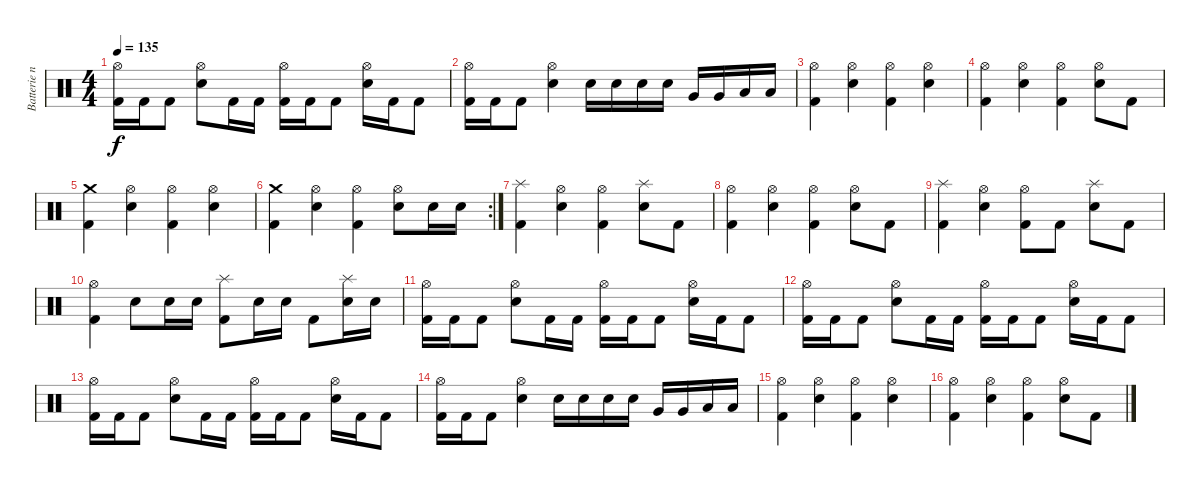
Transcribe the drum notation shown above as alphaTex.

\track ("Batterie n°3" "Batterie n") {instrument percussion}
\staff {score}
\articulation defaults
\ts (4 4)
\tempo 135
\clef neutral
\ks c
("Hi-Hat (open)" "Kick (hit) 2").16{dy f} "Kick (hit) 2".16 "Kick (hit) 2".8 ("Hi-Hat (open)" "Snare (hit) 2").8 "Kick (hit) 2".16 "Kick (hit) 2".16 ("Hi-Hat (open)" "Kick (hit) 2").16 "Kick (hit) 2".16 "Kick (hit) 2".8 ("Hi-Hat (open)" "Snare (hit) 2").16 "Kick (hit) 2".16 "Kick (hit) 2".8 |
("Hi-Hat (open)" "Kick (hit) 2").16 "Kick (hit) 2".16 "Kick (hit) 2".8 ("Hi-Hat (open)" "Snare (hit) 2").4 "Snare (hit) 2".16 "Snare (hit) 2".16 "Snare (hit) 2".16 "Snare (hit) 2".16 "Very Low Tom (hit)".16 "Very Low Tom (hit)".16 "Low Tom (hit)".16 "Low Tom (hit)".16 |
("Hi-Hat (open)" "Kick (hit) 2").4 ("Hi-Hat (open)" "Snare (hit) 2").4 ("Hi-Hat (open)" "Kick (hit) 2").4 ("Hi-Hat (open)" "Snare (hit) 2").4 |
("Hi-Hat (open)" "Kick (hit) 2").4 ("Hi-Hat (open)" "Snare (hit) 2").4 ("Hi-Hat (open)" "Kick (hit) 2").4 ("Hi-Hat (open)" "Snare (hit) 2").8 "Kick (hit) 2".8 |
("Crash medium (hit)" "Kick (hit) 2").4 ("Hi-Hat (open)" "Snare (hit) 2").4 ("Hi-Hat (open)" "Kick (hit) 2").4 ("Hi-Hat (open)" "Snare (hit) 2").4 |
\rc 2
("Crash medium (hit)" "Kick (hit) 2").4 ("Hi-Hat (open)" "Snare (hit) 2").4 ("Hi-Hat (open)" "Kick (hit) 2").4 ("Hi-Hat (open)" "Snare (hit) 2").8 "Snare (hit) 2".16 "Snare (hit) 2".16 |
("Splash (hit)" "Kick (hit) 2").4 ("Hi-Hat (open)" "Snare (hit) 2").4 ("Hi-Hat (open)" "Kick (hit) 2").4 ("Splash (hit)" "Snare (hit) 2").8 "Kick (hit) 2".8 |
("Hi-Hat (open)" "Kick (hit) 2").4 ("Hi-Hat (open)" "Snare (hit) 2").4 ("Hi-Hat (open)" "Kick (hit) 2").4 ("Hi-Hat (open)" "Snare (hit) 2").8 "Kick (hit) 2".8 |
("Splash (hit)" "Kick (hit) 2").4 ("Hi-Hat (open)" "Snare (hit) 2").4 ("Hi-Hat (open)" "Kick (hit) 2").8 "Kick (hit) 2".8 ("Splash (hit)" "Snare (hit) 2").8 "Kick (hit) 2".8 |
("Hi-Hat (open)" "Kick (hit) 2").4 "Snare (hit) 2".8 "Snare (hit) 2".16 "Snare (hit) 2".16 ("Splash (hit)" "Kick (hit) 2").8 "Snare (hit) 2".16 "Snare (hit) 2".16 "Kick (hit) 2".8 ("Splash (hit)" "Snare (hit) 2").16 "Snare (hit) 2".16 |
("Hi-Hat (open)" "Kick (hit) 2").16 "Kick (hit) 2".16 "Kick (hit) 2".8 ("Hi-Hat (open)" "Snare (hit) 2").8 "Kick (hit) 2".16 "Kick (hit) 2".16 ("Hi-Hat (open)" "Kick (hit) 2").16 "Kick (hit) 2".16 "Kick (hit) 2".8 ("Hi-Hat (open)" "Snare (hit) 2").16 "Kick (hit) 2".16 "Kick (hit) 2".8 |
("Hi-Hat (open)" "Kick (hit) 2").16 "Kick (hit) 2".16 "Kick (hit) 2".8 ("Hi-Hat (open)" "Snare (hit) 2").8 "Kick (hit) 2".16 "Kick (hit) 2".16 ("Hi-Hat (open)" "Kick (hit) 2").16 "Kick (hit) 2".16 "Kick (hit) 2".8 ("Hi-Hat (open)" "Snare (hit) 2").16 "Kick (hit) 2".16 "Kick (hit) 2".8 |
("Hi-Hat (open)" "Kick (hit) 2").16 "Kick (hit) 2".16 "Kick (hit) 2".8 ("Hi-Hat (open)" "Snare (hit) 2").8 "Kick (hit) 2".16 "Kick (hit) 2".16 ("Hi-Hat (open)" "Kick (hit) 2").16 "Kick (hit) 2".16 "Kick (hit) 2".8 ("Hi-Hat (open)" "Snare (hit) 2").16 "Kick (hit) 2".16 "Kick (hit) 2".8 |
("Hi-Hat (open)" "Kick (hit) 2").16 "Kick (hit) 2".16 "Kick (hit) 2".8 ("Hi-Hat (open)" "Snare (hit) 2").4 "Snare (hit) 2".16 "Snare (hit) 2".16 "Snare (hit) 2".16 "Snare (hit) 2".16 "Very Low Tom (hit)".16 "Very Low Tom (hit)".16 "Low Tom (hit)".16 "Low Tom (hit)".16 |
("Hi-Hat (open)" "Kick (hit) 2").4 ("Hi-Hat (open)" "Snare (hit) 2").4 ("Hi-Hat (open)" "Kick (hit) 2").4 ("Hi-Hat (open)" "Snare (hit) 2").4 |
("Hi-Hat (open)" "Kick (hit) 2").4 ("Hi-Hat (open)" "Snare (hit) 2").4 ("Hi-Hat (open)" "Kick (hit) 2").4 ("Hi-Hat (open)" "Snare (hit) 2").8 "Kick (hit) 2".8
